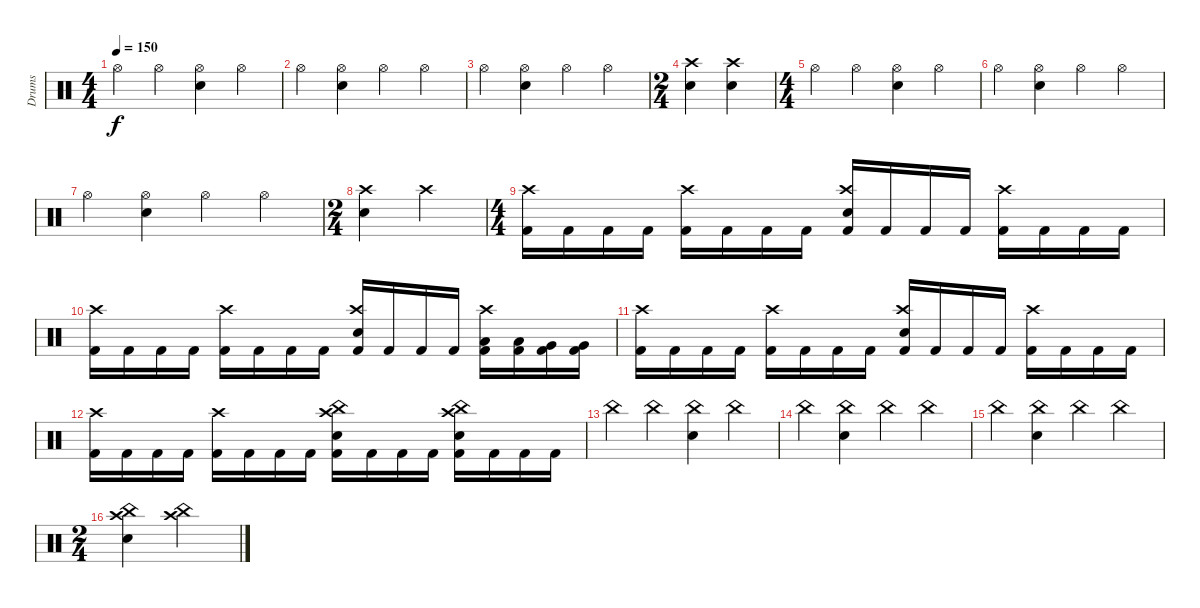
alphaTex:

\track ("Drums" "Drums") {instrument percussion}
\staff {score}
\articulation defaults
\ts (4 4)
\tempo 150
\clef neutral
\ks c "Hi-Hat (open)".4{dy f} "Hi-Hat (open)".4
("Hi-Hat (open)" "Electric Snare (hit)").4 "Hi-Hat (open)".4 |
"Hi-Hat (open)".4 ("Hi-Hat (open)" "Electric Snare (hit)").4 "Hi-Hat (open)".4 "Hi-Hat (open)".4 |
"Hi-Hat (open)".4 ("Hi-Hat (open)" "Electric Snare (hit)").4 "Hi-Hat (open)".4 "Hi-Hat (open)".4 |
\ts (2 4)
("Crash high (hit)" "Electric Snare (hit)").4 ("Crash high (hit)" "Electric Snare (hit)").4 |
\ts (4 4)
"Hi-Hat (open)".4 "Hi-Hat (open)".4 ("Hi-Hat (open)" "Electric Snare (hit)").4 "Hi-Hat (open)".4 |
"Hi-Hat (open)".4 ("Hi-Hat (open)" "Electric Snare (hit)").4 "Hi-Hat (open)".4 "Hi-Hat (open)".4 |
"Hi-Hat (open)".4 ("Hi-Hat (open)" "Electric Snare (hit)").4 "Hi-Hat (open)".4 "Hi-Hat (open)".4 |
\ts (2 4)
("Crash high (hit)" "Electric Snare (hit)").4 "Crash high (hit)".4 |
\ts (4 4)
("Kick (hit) 2" "Crash high (hit)").16 "Kick (hit) 2".16 "Kick (hit) 2".16 "Kick (hit) 2".16 ("Kick (hit) 2" "Crash high (hit)").16 "Kick (hit) 2".16 "Kick (hit) 2".16 "Kick (hit) 2".16 ("Kick (hit) 2" "Crash high (hit)" "Electric Snare (hit)").16 "Kick (hit) 2".16 "Kick (hit) 2".16 "Kick (hit) 2".16 ("Kick (hit) 2" "Crash high (hit)").16 "Kick (hit) 2".16 "Kick (hit) 2".16 "Kick (hit) 2".16 |
("Kick (hit) 2" "Crash high (hit)").16 "Kick (hit) 2".16 "Kick (hit) 2".16 "Kick (hit) 2".16 ("Kick (hit) 2" "Crash high (hit)").16 "Kick (hit) 2".16 "Kick (hit) 2".16 "Kick (hit) 2".16 ("Kick (hit) 2" "Crash high (hit)" "Electric Snare (hit)").16 "Kick (hit) 2".16 "Kick (hit) 2".16 "Kick (hit) 2".16 ("Kick (hit) 2" "Crash high (hit)" "Low Tom (hit)").16 ("Kick (hit) 2" "Low Tom (hit)").16 ("Kick (hit) 2" "Very Low Tom (hit)").16 ("Kick (hit) 2" "Very Low Tom (hit)").16 |
("Kick (hit) 2" "Crash high (hit)").16 "Kick (hit) 2".16 "Kick (hit) 2".16 "Kick (hit) 2".16 ("Kick (hit) 2" "Crash high (hit)").16 "Kick (hit) 2".16 "Kick (hit) 2".16 "Kick (hit) 2".16 ("Kick (hit) 2" "Crash high (hit)" "Electric Snare (hit)").16 "Kick (hit) 2".16 "Kick (hit) 2".16 "Kick (hit) 2".16 ("Kick (hit) 2" "Crash high (hit)").16 "Kick (hit) 2".16 "Kick (hit) 2".16 "Kick (hit) 2".16 |
("Kick (hit) 2" "Crash high (hit)").16 "Kick (hit) 2".16 "Kick (hit) 2".16 "Kick (hit) 2".16 ("Kick (hit) 2" "Crash high (hit)").16 "Kick (hit) 2".16 "Kick (hit) 2".16 "Kick (hit) 2".16 ("Kick (hit) 2" "Crash high (hit)" "Electric Snare (hit)" "China (hit)").16 "Kick (hit) 2".16 "Kick (hit) 2".16 "Kick (hit) 2".16 ("Kick (hit) 2" "Crash high (hit)" "Electric Snare (hit)" "China (hit)").16 "Kick (hit) 2".16 "Kick (hit) 2".16 "Kick (hit) 2".16 |
"China (hit)".4 "China (hit)".4 ("China (hit)" "Electric Snare (hit)").4 "China (hit)".4 |
"China (hit)".4 ("China (hit)" "Electric Snare (hit)").4 "China (hit)".4 "China (hit)".4 |
"China (hit)".4 ("China (hit)" "Electric Snare (hit)").4 "China (hit)".4 "China (hit)".4 |
\ts (2 4)
("Crash high (hit)" "Electric Snare (hit)" "China (hit)").4 ("Crash high (hit)" "China (hit)").4
